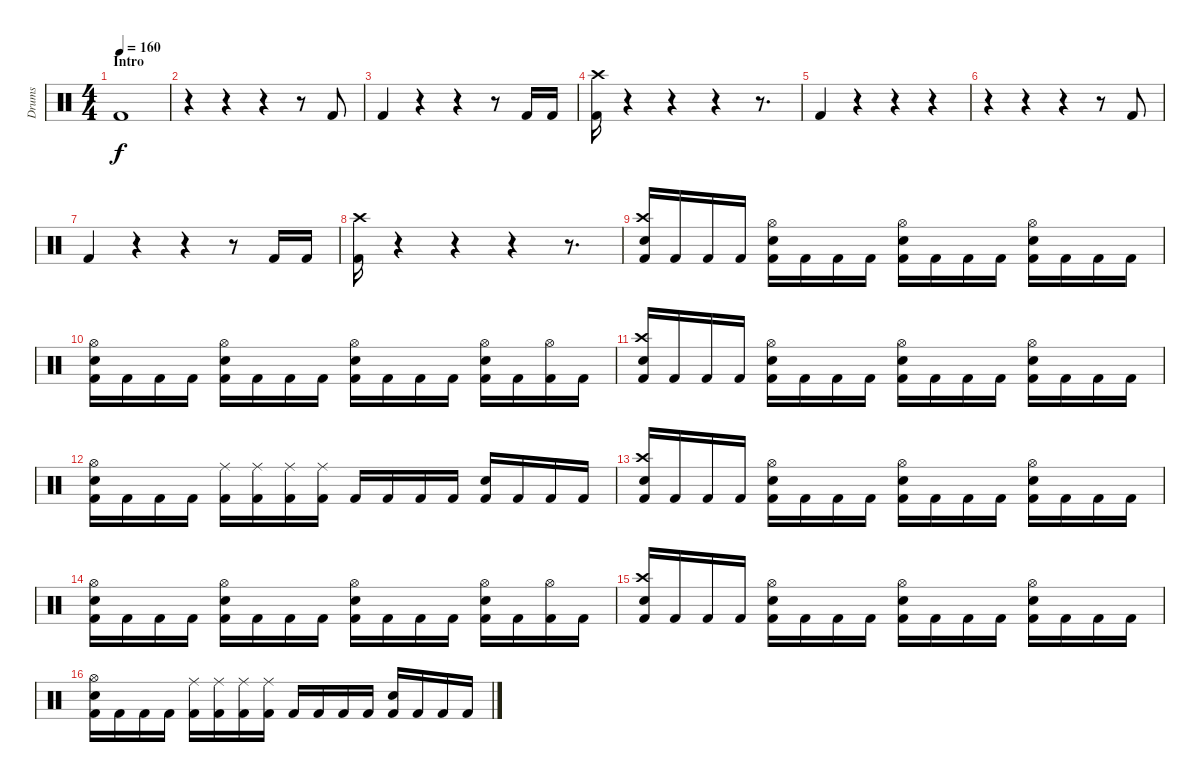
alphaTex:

\track ("Drums" "Drums") {instrument percussion}
\staff {score}
\articulation defaults
\ts (4 4)
\section ("" "Intro")
\tempo 160
\clef neutral
\ks c "Kick (hit) 2".1{dy f}
|
r.4 r.4 r.4 r.8 "Kick (hit) 2".8 |
"Kick (hit) 2".4 r.4 r.4 r.8 "Kick (hit) 2".16 "Kick (hit) 2".16 |
("Kick (hit) 2" "Crash high (hit)").16 r.4 r.4 r.4 r.8{d} |
"Kick (hit) 2".4 r.4 r.4 r.4 |
r.4 r.4 r.4 r.8 "Kick (hit) 2".8 |
"Kick (hit) 2".4 r.4 r.4 r.8 "Kick (hit) 2".16 "Kick (hit) 2".16 |
("Kick (hit) 2" "Crash high (hit)").16 r.4 r.4 r.4 r.8{d} |
("Kick (hit) 2" "Electric Snare (hit)" "Crash high (hit)").16 "Kick (hit) 2".16 "Kick (hit) 2".16 "Kick (hit) 2".16 ("Kick (hit) 2" "Electric Snare (hit)" "Hi-Hat (open)").16 "Kick (hit) 2".16 "Kick (hit) 2".16 "Kick (hit) 2".16 ("Kick (hit) 2" "Electric Snare (hit)" "Hi-Hat (open)").16 "Kick (hit) 2".16 "Kick (hit) 2".16 "Kick (hit) 2".16 ("Kick (hit) 2" "Electric Snare (hit)" "Hi-Hat (open)").16 "Kick (hit) 2".16 "Kick (hit) 2".16 "Kick (hit) 2".16 |
("Kick (hit) 2" "Electric Snare (hit)" "Hi-Hat (open)").16 "Kick (hit) 2".16 "Kick (hit) 2".16 "Kick (hit) 2".16 ("Kick (hit) 2" "Electric Snare (hit)" "Hi-Hat (open)").16 "Kick (hit) 2".16 "Kick (hit) 2".16 "Kick (hit) 2".16 ("Kick (hit) 2" "Electric Snare (hit)" "Hi-Hat (open)").16 "Kick (hit) 2".16 "Kick (hit) 2".16 "Kick (hit) 2".16 ("Kick (hit) 2" "Electric Snare (hit)" "Hi-Hat (open)").16 "Kick (hit) 2".16 ("Kick (hit) 2" "Hi-Hat (open)").16 "Kick (hit) 2".16 |
("Kick (hit) 2" "Electric Snare (hit)" "Crash high (hit)").16 "Kick (hit) 2".16 "Kick (hit) 2".16 "Kick (hit) 2".16 ("Kick (hit) 2" "Electric Snare (hit)" "Hi-Hat (open)").16 "Kick (hit) 2".16 "Kick (hit) 2".16 "Kick (hit) 2".16 ("Kick (hit) 2" "Electric Snare (hit)" "Hi-Hat (open)").16 "Kick (hit) 2".16 "Kick (hit) 2".16 "Kick (hit) 2".16 ("Kick (hit) 2" "Electric Snare (hit)" "Hi-Hat (open)").16 "Kick (hit) 2".16 "Kick (hit) 2".16 "Kick (hit) 2".16 |
("Kick (hit) 2" "Electric Snare (hit)" "Hi-Hat (open)").16 "Kick (hit) 2".16 "Kick (hit) 2".16 "Kick (hit) 2".16 ("Kick (hit) 2" "Ride (middle)").16 ("Kick (hit) 2" "Ride (middle)").16 ("Kick (hit) 2" "Ride (middle)").16 ("Kick (hit) 2" "Ride (middle)").16 "Kick (hit) 2".16 "Kick (hit) 2".16 "Kick (hit) 2".16 "Kick (hit) 2".16 ("Kick (hit) 2" "Electric Snare (hit)").16 "Kick (hit) 2".16 "Kick (hit) 2".16 "Kick (hit) 2".16 |
("Kick (hit) 2" "Electric Snare (hit)" "Crash high (hit)").16 "Kick (hit) 2".16 "Kick (hit) 2".16 "Kick (hit) 2".16 ("Kick (hit) 2" "Electric Snare (hit)" "Hi-Hat (open)").16 "Kick (hit) 2".16 "Kick (hit) 2".16 "Kick (hit) 2".16 ("Kick (hit) 2" "Electric Snare (hit)" "Hi-Hat (open)").16 "Kick (hit) 2".16 "Kick (hit) 2".16 "Kick (hit) 2".16 ("Kick (hit) 2" "Electric Snare (hit)" "Hi-Hat (open)").16 "Kick (hit) 2".16 "Kick (hit) 2".16 "Kick (hit) 2".16 |
("Kick (hit) 2" "Electric Snare (hit)" "Hi-Hat (open)").16 "Kick (hit) 2".16 "Kick (hit) 2".16 "Kick (hit) 2".16 ("Kick (hit) 2" "Electric Snare (hit)" "Hi-Hat (open)").16 "Kick (hit) 2".16 "Kick (hit) 2".16 "Kick (hit) 2".16 ("Kick (hit) 2" "Electric Snare (hit)" "Hi-Hat (open)").16 "Kick (hit) 2".16 "Kick (hit) 2".16 "Kick (hit) 2".16 ("Kick (hit) 2" "Electric Snare (hit)" "Hi-Hat (open)").16 "Kick (hit) 2".16 ("Kick (hit) 2" "Hi-Hat (open)").16 "Kick (hit) 2".16 |
("Kick (hit) 2" "Electric Snare (hit)" "Crash high (hit)").16 "Kick (hit) 2".16 "Kick (hit) 2".16 "Kick (hit) 2".16 ("Kick (hit) 2" "Electric Snare (hit)" "Hi-Hat (open)").16 "Kick (hit) 2".16 "Kick (hit) 2".16 "Kick (hit) 2".16 ("Kick (hit) 2" "Electric Snare (hit)" "Hi-Hat (open)").16 "Kick (hit) 2".16 "Kick (hit) 2".16 "Kick (hit) 2".16 ("Kick (hit) 2" "Electric Snare (hit)" "Hi-Hat (open)").16 "Kick (hit) 2".16 "Kick (hit) 2".16 "Kick (hit) 2".16 |
("Kick (hit) 2" "Electric Snare (hit)" "Hi-Hat (open)").16 "Kick (hit) 2".16 "Kick (hit) 2".16 "Kick (hit) 2".16 ("Kick (hit) 2" "Ride (middle)").16 ("Kick (hit) 2" "Ride (middle)").16 ("Kick (hit) 2" "Ride (middle)").16 ("Kick (hit) 2" "Ride (middle)").16 "Kick (hit) 2".16 "Kick (hit) 2".16 "Kick (hit) 2".16 "Kick (hit) 2".16 ("Kick (hit) 2" "Electric Snare (hit)").16 "Kick (hit) 2".16 "Kick (hit) 2".16 "Kick (hit) 2".16
